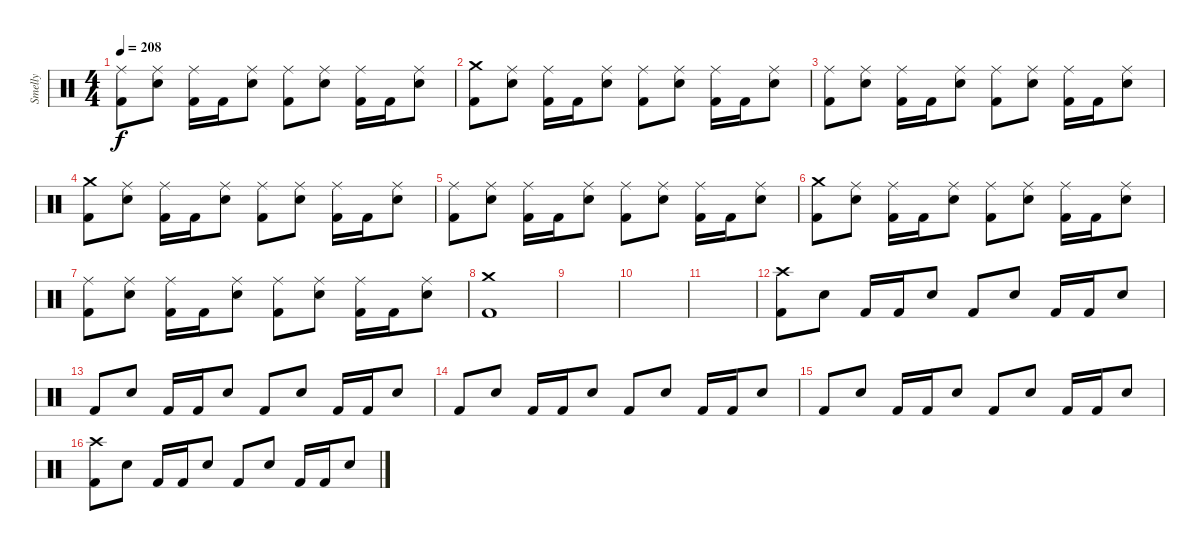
\track ("Smelly" "Smelly") {instrument percussion}
\staff {score}
\articulation defaults
\ts (4 4)
\tempo 208
\clef neutral
\ks c
("Kick (hit) 2" "Ride (middle)").8{dy f} ("Ride (middle)" "Electric Snare (hit)").8 ("Kick (hit) 2" "Ride (middle)").16 "Kick (hit) 2".16 ("Ride (middle)" "Electric Snare (hit)").8 ("Kick (hit) 2" "Ride (middle)").8 ("Ride (middle)" "Electric Snare (hit)").8 ("Kick (hit) 2" "Ride (middle)").16 "Kick (hit) 2".16 ("Ride (middle)" "Electric Snare (hit)").8 |
("Crash medium (hit)" "Kick (hit) 2").8 ("Ride (middle)" "Electric Snare (hit)").8 ("Kick (hit) 2" "Ride (middle)").16 "Kick (hit) 2".16 ("Ride (middle)" "Electric Snare (hit)").8 ("Kick (hit) 2" "Ride (middle)").8 ("Ride (middle)" "Electric Snare (hit)").8 ("Kick (hit) 2" "Ride (middle)").16 "Kick (hit) 2".16 ("Ride (middle)" "Electric Snare (hit)").8 |
("Kick (hit) 2" "Ride (middle)").8 ("Ride (middle)" "Electric Snare (hit)").8 ("Kick (hit) 2" "Ride (middle)").16 "Kick (hit) 2".16 ("Ride (middle)" "Electric Snare (hit)").8 ("Kick (hit) 2" "Ride (middle)").8 ("Ride (middle)" "Electric Snare (hit)").8 ("Kick (hit) 2" "Ride (middle)").16 "Kick (hit) 2".16 ("Ride (middle)" "Electric Snare (hit)").8 |
("Crash medium (hit)" "Kick (hit) 2").8 ("Ride (middle)" "Electric Snare (hit)").8 ("Kick (hit) 2" "Ride (middle)").16 "Kick (hit) 2".16 ("Ride (middle)" "Electric Snare (hit)").8 ("Kick (hit) 2" "Ride (middle)").8 ("Ride (middle)" "Electric Snare (hit)").8 ("Kick (hit) 2" "Ride (middle)").16 "Kick (hit) 2".16 ("Ride (middle)" "Electric Snare (hit)").8 |
("Kick (hit) 2" "Ride (middle)").8 ("Ride (middle)" "Electric Snare (hit)").8 ("Kick (hit) 2" "Ride (middle)").16 "Kick (hit) 2".16 ("Ride (middle)" "Electric Snare (hit)").8 ("Kick (hit) 2" "Ride (middle)").8 ("Ride (middle)" "Electric Snare (hit)").8 ("Kick (hit) 2" "Ride (middle)").16 "Kick (hit) 2".16 ("Ride (middle)" "Electric Snare (hit)").8 |
("Crash medium (hit)" "Kick (hit) 2").8 ("Ride (middle)" "Electric Snare (hit)").8 ("Kick (hit) 2" "Ride (middle)").16 "Kick (hit) 2".16 ("Ride (middle)" "Electric Snare (hit)").8 ("Kick (hit) 2" "Ride (middle)").8 ("Ride (middle)" "Electric Snare (hit)").8 ("Kick (hit) 2" "Ride (middle)").16 "Kick (hit) 2".16 ("Ride (middle)" "Electric Snare (hit)").8 |
("Kick (hit) 2" "Ride (middle)").8 ("Ride (middle)" "Electric Snare (hit)").8 ("Kick (hit) 2" "Ride (middle)").16 "Kick (hit) 2".16 ("Ride (middle)" "Electric Snare (hit)").8 ("Kick (hit) 2" "Ride (middle)").8 ("Ride (middle)" "Electric Snare (hit)").8 ("Kick (hit) 2" "Ride (middle)").16 "Kick (hit) 2".16 ("Ride (middle)" "Electric Snare (hit)").8 |
("Crash medium (hit)" "Kick (hit) 2").1 |
|
|
|
("Crash high (hit)" "Kick (hit) 2").8 "Electric Snare (hit)".8 "Kick (hit) 2".16 "Kick (hit) 2".16 "Electric Snare (hit)".8 "Kick (hit) 2".8 "Electric Snare (hit)".8 "Kick (hit) 2".16 "Kick (hit) 2".16 "Electric Snare (hit)".8 |
"Kick (hit) 2".8 "Electric Snare (hit)".8 "Kick (hit) 2".16 "Kick (hit) 2".16 "Electric Snare (hit)".8 "Kick (hit) 2".8 "Electric Snare (hit)".8 "Kick (hit) 2".16 "Kick (hit) 2".16 "Electric Snare (hit)".8 |
"Kick (hit) 2".8 "Electric Snare (hit)".8 "Kick (hit) 2".16 "Kick (hit) 2".16 "Electric Snare (hit)".8 "Kick (hit) 2".8 "Electric Snare (hit)".8 "Kick (hit) 2".16 "Kick (hit) 2".16 "Electric Snare (hit)".8 |
"Kick (hit) 2".8 "Electric Snare (hit)".8 "Kick (hit) 2".16 "Kick (hit) 2".16 "Electric Snare (hit)".8 "Kick (hit) 2".8 "Electric Snare (hit)".8 "Kick (hit) 2".16 "Kick (hit) 2".16 "Electric Snare (hit)".8 |
("Crash high (hit)" "Kick (hit) 2").8 "Electric Snare (hit)".8 "Kick (hit) 2".16 "Kick (hit) 2".16 "Electric Snare (hit)".8 "Kick (hit) 2".8 "Electric Snare (hit)".8 "Kick (hit) 2".16 "Kick (hit) 2".16 "Electric Snare (hit)".8
